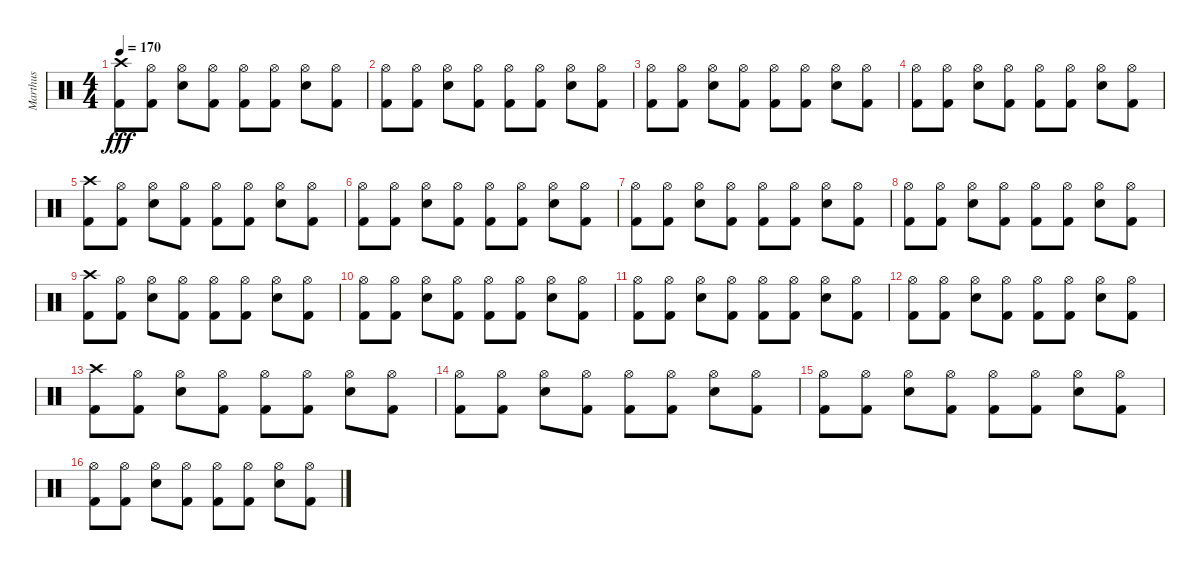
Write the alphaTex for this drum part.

\track ("Marthus" "Marthus") {instrument percussion}
\staff {score}
\articulation defaults
\ts (4 4)
\tempo 170
\clef neutral
\ks c
("Crash high (hit)" "Kick (hit) 2").8{dy fff} ("Hi-Hat (open)" "Kick (hit) 2").8 ("Hi-Hat (open)" "Electric Snare (hit)").8 ("Hi-Hat (open)" "Kick (hit) 2").8 ("Hi-Hat (open)" "Kick (hit) 2").8 ("Hi-Hat (open)" "Kick (hit) 2").8 ("Hi-Hat (open)" "Electric Snare (hit)").8 ("Hi-Hat (open)" "Kick (hit) 2").8 |
("Hi-Hat (open)" "Kick (hit) 2").8 ("Hi-Hat (open)" "Kick (hit) 2").8 ("Hi-Hat (open)" "Electric Snare (hit)").8 ("Hi-Hat (open)" "Kick (hit) 2").8 ("Hi-Hat (open)" "Kick (hit) 2").8 ("Hi-Hat (open)" "Kick (hit) 2").8 ("Hi-Hat (open)" "Electric Snare (hit)").8 ("Hi-Hat (open)" "Kick (hit) 2").8 |
("Hi-Hat (open)" "Kick (hit) 2").8 ("Hi-Hat (open)" "Kick (hit) 2").8 ("Hi-Hat (open)" "Electric Snare (hit)").8 ("Hi-Hat (open)" "Kick (hit) 2").8 ("Hi-Hat (open)" "Kick (hit) 2").8 ("Hi-Hat (open)" "Kick (hit) 2").8 ("Hi-Hat (open)" "Electric Snare (hit)").8 ("Hi-Hat (open)" "Kick (hit) 2").8 |
("Hi-Hat (open)" "Kick (hit) 2").8 ("Hi-Hat (open)" "Kick (hit) 2").8 ("Hi-Hat (open)" "Electric Snare (hit)").8 ("Hi-Hat (open)" "Kick (hit) 2").8 ("Hi-Hat (open)" "Kick (hit) 2").8 ("Hi-Hat (open)" "Kick (hit) 2").8 ("Hi-Hat (open)" "Electric Snare (hit)").8 ("Hi-Hat (open)" "Kick (hit) 2").8 |
("Crash high (hit)" "Kick (hit) 2").8 ("Hi-Hat (open)" "Kick (hit) 2").8 ("Hi-Hat (open)" "Electric Snare (hit)").8 ("Hi-Hat (open)" "Kick (hit) 2").8 ("Hi-Hat (open)" "Kick (hit) 2").8 ("Hi-Hat (open)" "Kick (hit) 2").8 ("Hi-Hat (open)" "Electric Snare (hit)").8 ("Hi-Hat (open)" "Kick (hit) 2").8 |
("Hi-Hat (open)" "Kick (hit) 2").8 ("Hi-Hat (open)" "Kick (hit) 2").8 ("Hi-Hat (open)" "Electric Snare (hit)").8 ("Hi-Hat (open)" "Kick (hit) 2").8 ("Hi-Hat (open)" "Kick (hit) 2").8 ("Hi-Hat (open)" "Kick (hit) 2").8 ("Hi-Hat (open)" "Electric Snare (hit)").8 ("Hi-Hat (open)" "Kick (hit) 2").8 |
("Hi-Hat (open)" "Kick (hit) 2").8 ("Hi-Hat (open)" "Kick (hit) 2").8 ("Hi-Hat (open)" "Electric Snare (hit)").8 ("Hi-Hat (open)" "Kick (hit) 2").8 ("Hi-Hat (open)" "Kick (hit) 2").8 ("Hi-Hat (open)" "Kick (hit) 2").8 ("Hi-Hat (open)" "Electric Snare (hit)").8 ("Hi-Hat (open)" "Kick (hit) 2").8 |
("Hi-Hat (open)" "Kick (hit) 2").8 ("Hi-Hat (open)" "Kick (hit) 2").8 ("Hi-Hat (open)" "Electric Snare (hit)").8 ("Hi-Hat (open)" "Kick (hit) 2").8 ("Hi-Hat (open)" "Kick (hit) 2").8 ("Hi-Hat (open)" "Kick (hit) 2").8 ("Hi-Hat (open)" "Electric Snare (hit)").8 ("Hi-Hat (open)" "Kick (hit) 2").8 |
("Crash high (hit)" "Kick (hit) 2").8 ("Hi-Hat (open)" "Kick (hit) 2").8 ("Hi-Hat (open)" "Electric Snare (hit)").8 ("Hi-Hat (open)" "Kick (hit) 2").8 ("Hi-Hat (open)" "Kick (hit) 2").8 ("Hi-Hat (open)" "Kick (hit) 2").8 ("Hi-Hat (open)" "Electric Snare (hit)").8 ("Hi-Hat (open)" "Kick (hit) 2").8 |
("Hi-Hat (open)" "Kick (hit) 2").8 ("Hi-Hat (open)" "Kick (hit) 2").8 ("Hi-Hat (open)" "Electric Snare (hit)").8 ("Hi-Hat (open)" "Kick (hit) 2").8 ("Hi-Hat (open)" "Kick (hit) 2").8 ("Hi-Hat (open)" "Kick (hit) 2").8 ("Hi-Hat (open)" "Electric Snare (hit)").8 ("Hi-Hat (open)" "Kick (hit) 2").8 |
("Hi-Hat (open)" "Kick (hit) 2").8 ("Hi-Hat (open)" "Kick (hit) 2").8 ("Hi-Hat (open)" "Electric Snare (hit)").8 ("Hi-Hat (open)" "Kick (hit) 2").8 ("Hi-Hat (open)" "Kick (hit) 2").8 ("Hi-Hat (open)" "Kick (hit) 2").8 ("Hi-Hat (open)" "Electric Snare (hit)").8 ("Hi-Hat (open)" "Kick (hit) 2").8 |
("Hi-Hat (open)" "Kick (hit) 2").8 ("Hi-Hat (open)" "Kick (hit) 2").8 ("Hi-Hat (open)" "Electric Snare (hit)").8 ("Hi-Hat (open)" "Kick (hit) 2").8 ("Hi-Hat (open)" "Kick (hit) 2").8 ("Hi-Hat (open)" "Kick (hit) 2").8 ("Hi-Hat (open)" "Electric Snare (hit)").8 ("Hi-Hat (open)" "Kick (hit) 2").8 |
("Crash high (hit)" "Kick (hit) 2").8 ("Hi-Hat (open)" "Kick (hit) 2").8 ("Hi-Hat (open)" "Electric Snare (hit)").8 ("Hi-Hat (open)" "Kick (hit) 2").8 ("Hi-Hat (open)" "Kick (hit) 2").8 ("Hi-Hat (open)" "Kick (hit) 2").8 ("Hi-Hat (open)" "Electric Snare (hit)").8 ("Hi-Hat (open)" "Kick (hit) 2").8 |
("Hi-Hat (open)" "Kick (hit) 2").8 ("Hi-Hat (open)" "Kick (hit) 2").8 ("Hi-Hat (open)" "Electric Snare (hit)").8 ("Hi-Hat (open)" "Kick (hit) 2").8 ("Hi-Hat (open)" "Kick (hit) 2").8 ("Hi-Hat (open)" "Kick (hit) 2").8 ("Hi-Hat (open)" "Electric Snare (hit)").8 ("Hi-Hat (open)" "Kick (hit) 2").8 |
("Hi-Hat (open)" "Kick (hit) 2").8 ("Hi-Hat (open)" "Kick (hit) 2").8 ("Hi-Hat (open)" "Electric Snare (hit)").8 ("Hi-Hat (open)" "Kick (hit) 2").8 ("Hi-Hat (open)" "Kick (hit) 2").8 ("Hi-Hat (open)" "Kick (hit) 2").8 ("Hi-Hat (open)" "Electric Snare (hit)").8 ("Hi-Hat (open)" "Kick (hit) 2").8 |
("Hi-Hat (open)" "Kick (hit) 2").8 ("Hi-Hat (open)" "Kick (hit) 2").8 ("Hi-Hat (open)" "Electric Snare (hit)").8 ("Hi-Hat (open)" "Kick (hit) 2").8 ("Hi-Hat (open)" "Kick (hit) 2").8 ("Hi-Hat (open)" "Kick (hit) 2").8 ("Hi-Hat (open)" "Electric Snare (hit)").8 ("Hi-Hat (open)" "Kick (hit) 2").8
